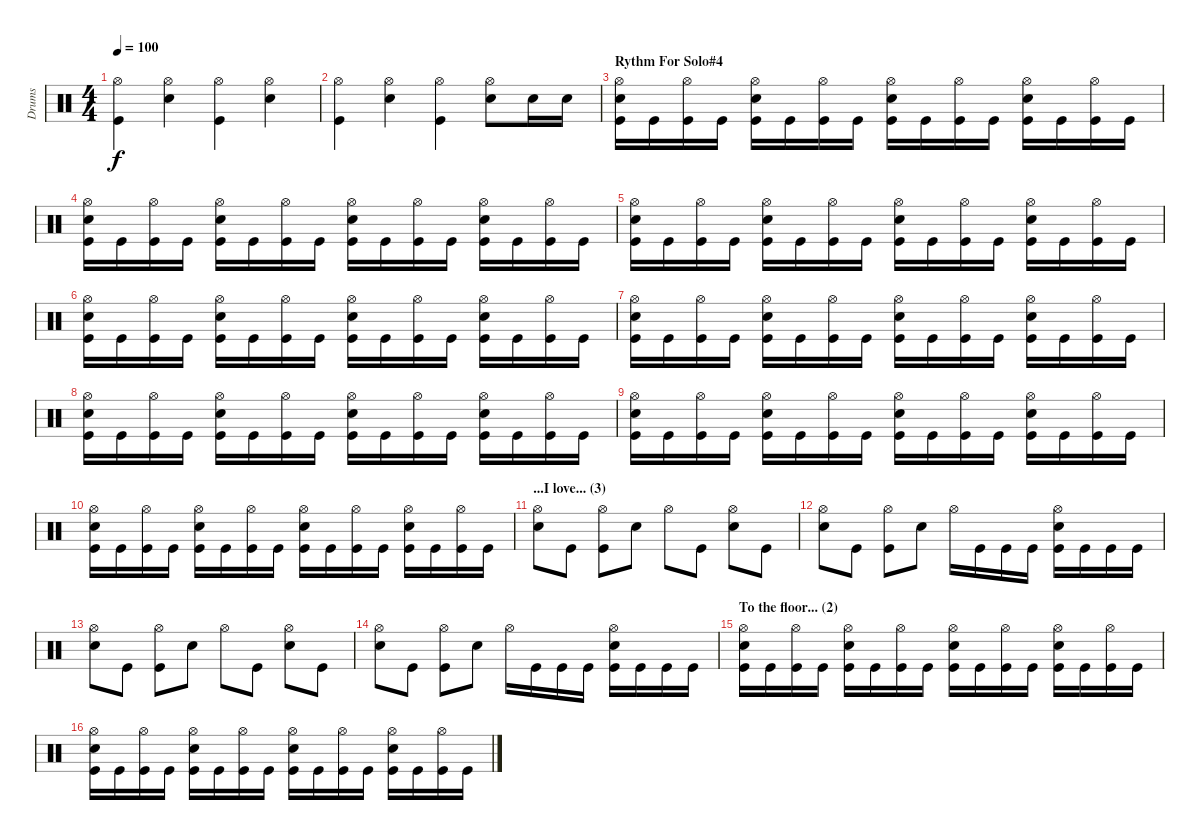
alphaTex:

\track ("Drums" "Drums") {instrument percussion}
\staff {score}
\articulation defaults
\ts (4 4)
\tempo 100
\clef neutral
\ks c
("Hi-Hat (open)" "Kick (hit)").4{dy f} ("Hi-Hat (open)" "Snare (hit) 2").4 ("Hi-Hat (open)" "Kick (hit)").4 ("Hi-Hat (open)" "Snare (hit) 2").4 |
("Hi-Hat (open)" "Kick (hit)").4 ("Hi-Hat (open)" "Snare (hit) 2").4 ("Hi-Hat (open)" "Kick (hit)").4 ("Hi-Hat (open)" "Snare (hit) 2").8 "Snare (hit) 2".16 "Snare (hit) 2".16 |
\section ("" "Rythm For Solo#4")
("Hi-Hat (open)" "Snare (hit) 2" "Kick (hit)").16 "Kick (hit)".16 ("Hi-Hat (open)" "Kick (hit)").16 "Kick (hit)".16 ("Hi-Hat (open)" "Snare (hit) 2" "Kick (hit)").16 "Kick (hit)".16 ("Hi-Hat (open)" "Kick (hit)").16 "Kick (hit)".16 ("Hi-Hat (open)" "Snare (hit) 2" "Kick (hit)").16 "Kick (hit)".16 ("Hi-Hat (open)" "Kick (hit)").16 "Kick (hit)".16 ("Hi-Hat (open)" "Snare (hit) 2" "Kick (hit)").16 "Kick (hit)".16 ("Hi-Hat (open)" "Kick (hit)").16 "Kick (hit)".16 |
("Hi-Hat (open)" "Snare (hit) 2" "Kick (hit)").16 "Kick (hit)".16 ("Hi-Hat (open)" "Kick (hit)").16 "Kick (hit)".16 ("Hi-Hat (open)" "Snare (hit) 2" "Kick (hit)").16 "Kick (hit)".16 ("Hi-Hat (open)" "Kick (hit)").16 "Kick (hit)".16 ("Hi-Hat (open)" "Snare (hit) 2" "Kick (hit)").16 "Kick (hit)".16 ("Hi-Hat (open)" "Kick (hit)").16 "Kick (hit)".16 ("Hi-Hat (open)" "Snare (hit) 2" "Kick (hit)").16 "Kick (hit)".16 ("Hi-Hat (open)" "Kick (hit)").16 "Kick (hit)".16 |
("Hi-Hat (open)" "Snare (hit) 2" "Kick (hit)").16 "Kick (hit)".16 ("Hi-Hat (open)" "Kick (hit)").16 "Kick (hit)".16 ("Hi-Hat (open)" "Snare (hit) 2" "Kick (hit)").16 "Kick (hit)".16 ("Hi-Hat (open)" "Kick (hit)").16 "Kick (hit)".16 ("Hi-Hat (open)" "Snare (hit) 2" "Kick (hit)").16 "Kick (hit)".16 ("Hi-Hat (open)" "Kick (hit)").16 "Kick (hit)".16 ("Hi-Hat (open)" "Snare (hit) 2" "Kick (hit)").16 "Kick (hit)".16 ("Hi-Hat (open)" "Kick (hit)").16 "Kick (hit)".16 |
("Hi-Hat (open)" "Snare (hit) 2" "Kick (hit)").16 "Kick (hit)".16 ("Hi-Hat (open)" "Kick (hit)").16 "Kick (hit)".16 ("Hi-Hat (open)" "Snare (hit) 2" "Kick (hit)").16 "Kick (hit)".16 ("Hi-Hat (open)" "Kick (hit)").16 "Kick (hit)".16 ("Hi-Hat (open)" "Snare (hit) 2" "Kick (hit)").16 "Kick (hit)".16 ("Hi-Hat (open)" "Kick (hit)").16 "Kick (hit)".16 ("Hi-Hat (open)" "Snare (hit) 2" "Kick (hit)").16 "Kick (hit)".16 ("Hi-Hat (open)" "Kick (hit)").16 "Kick (hit)".16 |
("Hi-Hat (open)" "Snare (hit) 2" "Kick (hit)").16 "Kick (hit)".16 ("Hi-Hat (open)" "Kick (hit)").16 "Kick (hit)".16 ("Hi-Hat (open)" "Snare (hit) 2" "Kick (hit)").16 "Kick (hit)".16 ("Hi-Hat (open)" "Kick (hit)").16 "Kick (hit)".16 ("Hi-Hat (open)" "Snare (hit) 2" "Kick (hit)").16 "Kick (hit)".16 ("Hi-Hat (open)" "Kick (hit)").16 "Kick (hit)".16 ("Hi-Hat (open)" "Snare (hit) 2" "Kick (hit)").16 "Kick (hit)".16 ("Hi-Hat (open)" "Kick (hit)").16 "Kick (hit)".16 |
("Hi-Hat (open)" "Snare (hit) 2" "Kick (hit)").16 "Kick (hit)".16 ("Hi-Hat (open)" "Kick (hit)").16 "Kick (hit)".16 ("Hi-Hat (open)" "Snare (hit) 2" "Kick (hit)").16 "Kick (hit)".16 ("Hi-Hat (open)" "Kick (hit)").16 "Kick (hit)".16 ("Hi-Hat (open)" "Snare (hit) 2" "Kick (hit)").16 "Kick (hit)".16 ("Hi-Hat (open)" "Kick (hit)").16 "Kick (hit)".16 ("Hi-Hat (open)" "Snare (hit) 2" "Kick (hit)").16 "Kick (hit)".16 ("Hi-Hat (open)" "Kick (hit)").16 "Kick (hit)".16 |
("Hi-Hat (open)" "Snare (hit) 2" "Kick (hit)").16 "Kick (hit)".16 ("Hi-Hat (open)" "Kick (hit)").16 "Kick (hit)".16 ("Hi-Hat (open)" "Snare (hit) 2" "Kick (hit)").16 "Kick (hit)".16 ("Hi-Hat (open)" "Kick (hit)").16 "Kick (hit)".16 ("Hi-Hat (open)" "Snare (hit) 2" "Kick (hit)").16 "Kick (hit)".16 ("Hi-Hat (open)" "Kick (hit)").16 "Kick (hit)".16 ("Hi-Hat (open)" "Snare (hit) 2" "Kick (hit)").16 "Kick (hit)".16 ("Hi-Hat (open)" "Kick (hit)").16 "Kick (hit)".16 |
("Hi-Hat (open)" "Snare (hit) 2" "Kick (hit)").16 "Kick (hit)".16 ("Hi-Hat (open)" "Kick (hit)").16 "Kick (hit)".16 ("Hi-Hat (open)" "Snare (hit) 2" "Kick (hit)").16 "Kick (hit)".16 ("Hi-Hat (open)" "Kick (hit)").16 "Kick (hit)".16 ("Hi-Hat (open)" "Snare (hit) 2" "Kick (hit)").16 "Kick (hit)".16 ("Hi-Hat (open)" "Kick (hit)").16 "Kick (hit)".16 ("Hi-Hat (open)" "Snare (hit) 2" "Kick (hit)").16 "Kick (hit)".16 ("Hi-Hat (open)" "Kick (hit)").16 "Kick (hit)".16 |
\section ("" "...I love... (3)")
("Hi-Hat (open)" "Snare (hit) 2").8 "Kick (hit)".8 ("Hi-Hat (open)" "Kick (hit)").8 "Snare (hit) 2".8 "Hi-Hat (open)".8 "Kick (hit)".8 ("Hi-Hat (open)" "Snare (hit) 2").8 "Kick (hit)".8 |
("Hi-Hat (open)" "Snare (hit) 2").8 "Kick (hit)".8 ("Hi-Hat (open)" "Kick (hit)").8 "Snare (hit) 2".8 "Hi-Hat (open)".16 "Kick (hit)".16 "Kick (hit)".16 "Kick (hit)".16 ("Hi-Hat (open)" "Snare (hit) 2" "Kick (hit)").16 "Kick (hit)".16 "Kick (hit)".16 "Kick (hit)".16 |
("Hi-Hat (open)" "Snare (hit) 2").8 "Kick (hit)".8 ("Hi-Hat (open)" "Kick (hit)").8 "Snare (hit) 2".8 "Hi-Hat (open)".8 "Kick (hit)".8 ("Hi-Hat (open)" "Snare (hit) 2").8 "Kick (hit)".8 |
("Hi-Hat (open)" "Snare (hit) 2").8 "Kick (hit)".8 ("Hi-Hat (open)" "Kick (hit)").8 "Snare (hit) 2".8 "Hi-Hat (open)".16 "Kick (hit)".16 "Kick (hit)".16 "Kick (hit)".16 ("Hi-Hat (open)" "Snare (hit) 2" "Kick (hit)").16 "Kick (hit)".16 "Kick (hit)".16 "Kick (hit)".16 |
\section ("" "To the floor... (2)")
("Hi-Hat (open)" "Snare (hit) 2" "Kick (hit)").16 "Kick (hit)".16 ("Hi-Hat (open)" "Kick (hit)").16 "Kick (hit)".16 ("Hi-Hat (open)" "Snare (hit) 2" "Kick (hit)").16 "Kick (hit)".16 ("Hi-Hat (open)" "Kick (hit)").16 "Kick (hit)".16 ("Hi-Hat (open)" "Snare (hit) 2" "Kick (hit)").16 "Kick (hit)".16 ("Hi-Hat (open)" "Kick (hit)").16 "Kick (hit)".16 ("Hi-Hat (open)" "Snare (hit) 2" "Kick (hit)").16 "Kick (hit)".16 ("Hi-Hat (open)" "Kick (hit)").16 "Kick (hit)".16 |
("Hi-Hat (open)" "Snare (hit) 2" "Kick (hit)").16 "Kick (hit)".16 ("Hi-Hat (open)" "Kick (hit)").16 "Kick (hit)".16 ("Hi-Hat (open)" "Snare (hit) 2" "Kick (hit)").16 "Kick (hit)".16 ("Hi-Hat (open)" "Kick (hit)").16 "Kick (hit)".16 ("Hi-Hat (open)" "Snare (hit) 2" "Kick (hit)").16 "Kick (hit)".16 ("Hi-Hat (open)" "Kick (hit)").16 "Kick (hit)".16 ("Hi-Hat (open)" "Snare (hit) 2" "Kick (hit)").16 "Kick (hit)".16 ("Hi-Hat (open)" "Kick (hit)").16 "Kick (hit)".16
